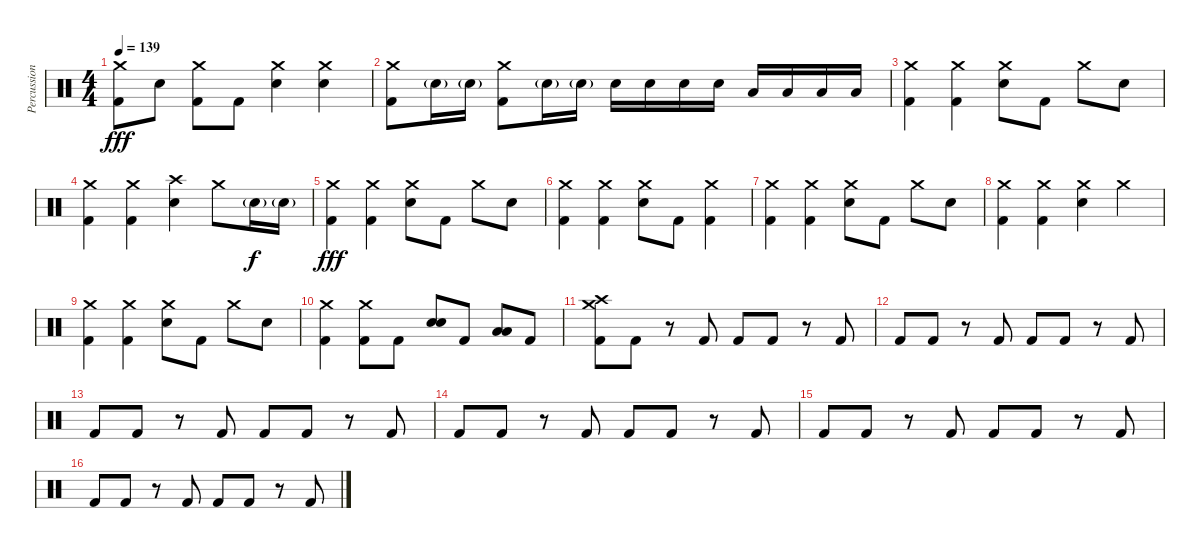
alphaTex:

\track ("Percussion" "Percussion") {instrument percussion}
\staff {score}
\articulation defaults
\ts (4 4)
\tempo 139
\clef neutral
\ks c
("Crash medium (hit)" "Kick (hit) 2").8{dy fff} "Electric Snare (hit)".8 ("Crash medium (hit)" "Kick (hit) 2").8 "Kick (hit) 2".8 ("Crash medium (hit)" "Electric Snare (hit)").4 ("Crash medium (hit)" "Electric Snare (hit)").4 |
("Crash medium (hit)" "Kick (hit) 2").8 "Electric Snare (hit)"{g}.16 "Electric Snare (hit)"{g}.16 ("Crash medium (hit)" "Kick (hit) 2").8 "Electric Snare (hit)"{g}.16 "Electric Snare (hit)"{g}.16 "Electric Snare (hit)".16 "Electric Snare (hit)".16 "Electric Snare (hit)".16 "Electric Snare (hit)".16 "Low Tom (hit)".16 "Low Tom (hit)".16 "Low Floor Tom (hit)".16 "Low Floor Tom (hit)".16 |
("Crash medium (hit)" "Kick (hit) 2").4 ("Crash medium (hit)" "Kick (hit) 2").4 ("Crash medium (hit)" "Electric Snare (hit)").8 "Kick (hit) 2".8 "Crash medium (hit)".8 "Electric Snare (hit)".8 |
("Crash medium (hit)" "Kick (hit) 2").4 ("Crash medium (hit)" "Kick (hit) 2").4 ("Crash high (hit)" "Electric Snare (hit)").4 "Crash medium (hit)".8 "Electric Snare (hit)"{g}.16{dy f} "Electric Snare (hit)"{g}.16 |
("Crash medium (hit)" "Kick (hit) 2").4{dy fff} ("Crash medium (hit)" "Kick (hit) 2").4 ("Crash medium (hit)" "Electric Snare (hit)").8 "Kick (hit) 2".8 "Crash medium (hit)".8 "Electric Snare (hit)".8 |
("Crash medium (hit)" "Kick (hit) 2").4 ("Crash medium (hit)" "Kick (hit) 2").4 ("Crash medium (hit)" "Electric Snare (hit)").8 "Kick (hit) 2".8 ("Crash medium (hit)" "Kick (hit) 2").4 |
("Crash medium (hit)" "Kick (hit) 2").4 ("Crash medium (hit)" "Kick (hit) 2").4 ("Crash medium (hit)" "Electric Snare (hit)").8 "Kick (hit) 2".8 "Crash medium (hit)".8 "Electric Snare (hit)".8 |
("Crash medium (hit)" "Kick (hit) 2").4 ("Crash medium (hit)" "Kick (hit) 2").4 ("Crash medium (hit)" "Electric Snare (hit)").4 "Crash medium (hit)".4 |
("Crash medium (hit)" "Kick (hit) 2").4 ("Crash medium (hit)" "Kick (hit) 2").4 ("Crash medium (hit)" "Electric Snare (hit)").8 "Kick (hit) 2".8 "Crash medium (hit)".8 "Electric Snare (hit)".8 |
("Crash medium (hit)" "Kick (hit) 2").4 ("Crash medium (hit)" "Kick (hit) 2").8 "Kick (hit) 2".8 ("Electric Snare (hit)" "Electric Snare (hit)").8{bd 480} "Kick (hit) 2".8 ("Low Tom (hit)" "Low Floor Tom (hit)").8{bd 480} "Kick (hit) 2".8 |
("Crash high (hit)" "Crash medium (hit)" "Kick (hit) 2").8 "Kick (hit) 2".8 r.8 "Kick (hit) 2".8 "Kick (hit) 2".8 "Kick (hit) 2".8 r.8 "Kick (hit) 2".8 |
"Kick (hit) 2".8 "Kick (hit) 2".8 r.8 "Kick (hit) 2".8 "Kick (hit) 2".8 "Kick (hit) 2".8 r.8 "Kick (hit) 2".8 |
"Kick (hit) 2".8 "Kick (hit) 2".8 r.8 "Kick (hit) 2".8 "Kick (hit) 2".8 "Kick (hit) 2".8 r.8 "Kick (hit) 2".8 |
"Kick (hit) 2".8 "Kick (hit) 2".8 r.8 "Kick (hit) 2".8 "Kick (hit) 2".8 "Kick (hit) 2".8 r.8 "Kick (hit) 2".8 |
"Kick (hit) 2".8 "Kick (hit) 2".8 r.8 "Kick (hit) 2".8 "Kick (hit) 2".8 "Kick (hit) 2".8 r.8 "Kick (hit) 2".8 |
"Kick (hit) 2".8 "Kick (hit) 2".8 r.8 "Kick (hit) 2".8 "Kick (hit) 2".8 "Kick (hit) 2".8 r.8 "Kick (hit) 2".8
